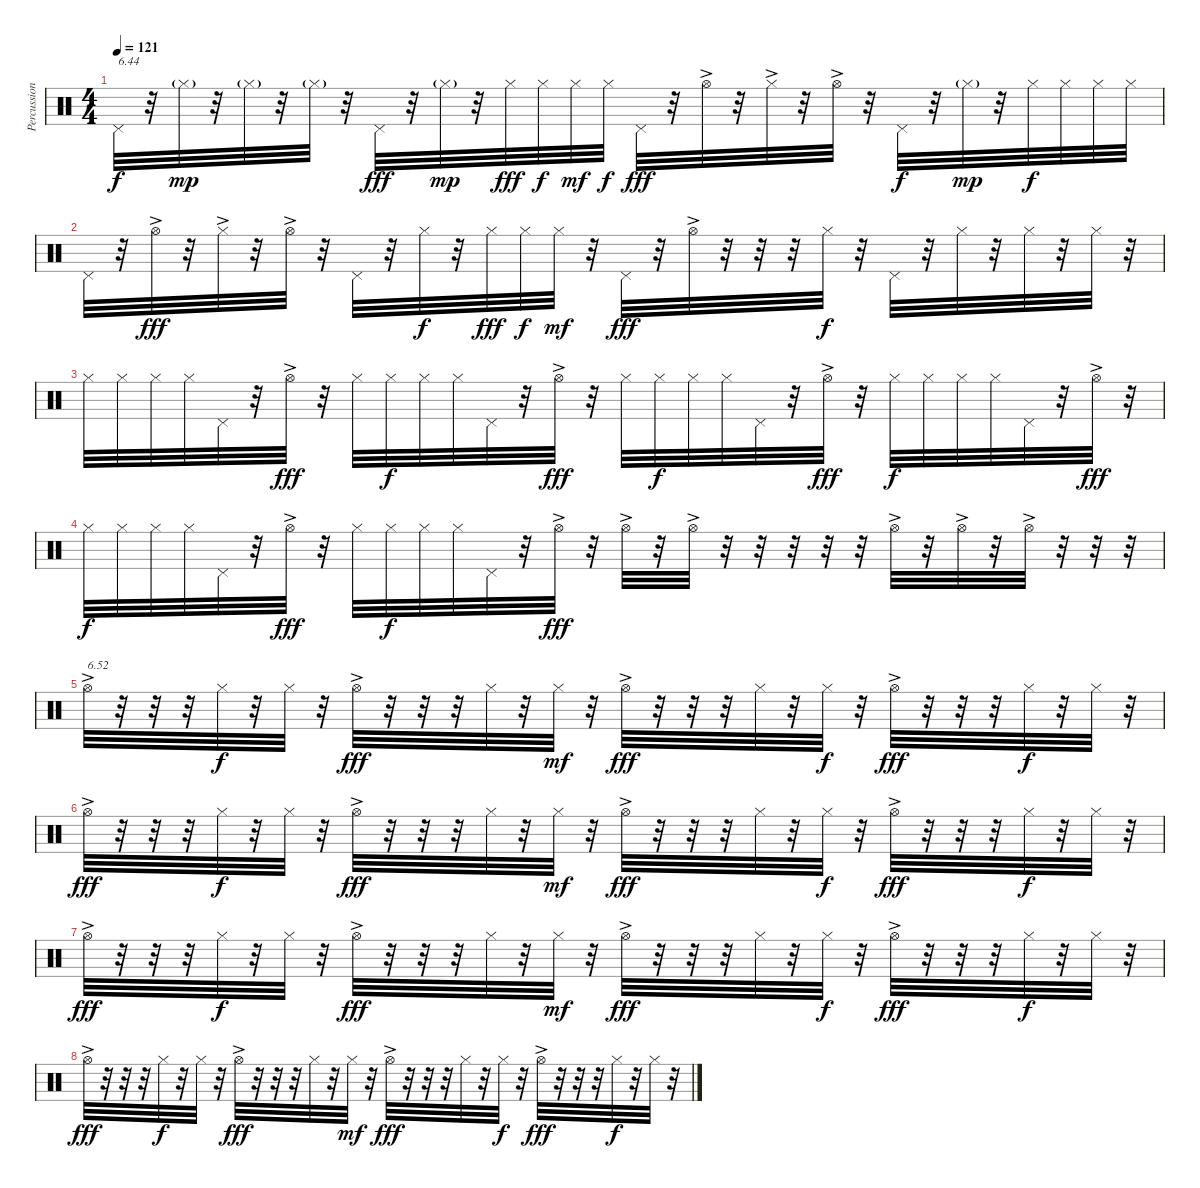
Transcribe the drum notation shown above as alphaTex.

\track ("Percussions" "Percussion") {instrument percussion}
\staff {score}
\articulation defaults
\ts (4 4)
\tempo 121
\clef neutral
\ks c "Pedal Hi-Hat (hit)".32{txt "6.44" dy f}
r.32 "Hi-Hat (closed)"{g}.32{dy mp} r.32 "Hi-Hat (closed)"{g}.32 r.32 "Hi-Hat (closed)"{g}.32 r.32 "Pedal Hi-Hat (hit)".32{dy fff} r.32 "Hi-Hat (closed)"{g}.32{dy mp} r.32 "Hi-Hat (closed)".32{dy fff} "Hi-Hat (closed)".32{dy f} "Hi-Hat (closed)".32{dy mf} "Hi-Hat (closed)".32{dy f} "Pedal Hi-Hat (hit)".32{dy fff} r.32 "Hi-Hat (open)"{ac}.32 r.32 "Hi-Hat (closed)"{ac}.32 r.32 "Hi-Hat (open)"{ac}.32 r.32 "Pedal Hi-Hat (hit)".32{dy f} r.32 "Hi-Hat (closed)"{g}.32{dy mp} r.32 "Hi-Hat (closed)".32{dy f} "Hi-Hat (closed)".32 "Hi-Hat (closed)".32 "Hi-Hat (closed)".32 |
"Pedal Hi-Hat (hit)".32 r.32 "Hi-Hat (open)"{ac}.32{dy fff} r.32 "Hi-Hat (closed)"{ac}.32 r.32 "Hi-Hat (open)"{ac}.32 r.32 "Pedal Hi-Hat (hit)".32 r.32 "Hi-Hat (closed)".32{dy f} r.32 "Hi-Hat (closed)".32{dy fff} "Hi-Hat (closed)".32{dy f} "Hi-Hat (closed)".32{dy mf} r.32 "Pedal Hi-Hat (hit)".32{dy fff} r.32 "Hi-Hat (open)"{ac}.32 r.32 r.32 r.32 "Hi-Hat (closed)".32{dy f} r.32 "Pedal Hi-Hat (hit)".32 r.32 "Hi-Hat (closed)".32 r.32 "Hi-Hat (closed)".32 r.32 "Hi-Hat (closed)".32 r.32 |
"Hi-Hat (closed)".32 "Hi-Hat (closed)".32 "Hi-Hat (closed)".32 "Hi-Hat (closed)".32 "Pedal Hi-Hat (hit)".32 r.32 "Hi-Hat (open)"{ac}.32{dy fff} r.32 "Hi-Hat (closed)".32 "Hi-Hat (closed)".32{dy f} "Hi-Hat (closed)".32 "Hi-Hat (closed)".32 "Pedal Hi-Hat (hit)".32 r.32 "Hi-Hat (open)"{ac}.32{dy fff} r.32 "Hi-Hat (closed)".32 "Hi-Hat (closed)".32{dy f} "Hi-Hat (closed)".32 "Hi-Hat (closed)".32 "Pedal Hi-Hat (hit)".32 r.32 "Hi-Hat (open)"{ac}.32{dy fff} r.32 "Hi-Hat (closed)".32{dy f} "Hi-Hat (closed)".32 "Hi-Hat (closed)".32 "Hi-Hat (closed)".32 "Pedal Hi-Hat (hit)".32 r.32 "Hi-Hat (open)"{ac}.32{dy fff} r.32 |
"Hi-Hat (closed)".32{dy f} "Hi-Hat (closed)".32 "Hi-Hat (closed)".32 "Hi-Hat (closed)".32 "Pedal Hi-Hat (hit)".32 r.32 "Hi-Hat (open)"{ac}.32{dy fff} r.32 "Hi-Hat (closed)".32 "Hi-Hat (closed)".32{dy f} "Hi-Hat (closed)".32 "Hi-Hat (closed)".32 "Pedal Hi-Hat (hit)".32 r.32 "Hi-Hat (open)"{ac}.32{dy fff} r.32 "Hi-Hat (open)"{ac}.32 r.32 "Hi-Hat (open)"{ac}.32 r.32 r.32 r.32 r.32 r.32 "Hi-Hat (open)"{ac}.32 r.32 "Hi-Hat (open)"{ac}.32 r.32 "Hi-Hat (open)"{ac}.32 r.32 r.32 r.32 |
"Hi-Hat (open)"{ac}.32{txt "6.52"} r.32 r.32 r.32 "Hi-Hat (closed)".32{dy f} r.32 "Hi-Hat (closed)".32 r.32 "Hi-Hat (open)"{ac}.32{dy fff} r.32 r.32 r.32 "Hi-Hat (closed)".32 r.32 "Hi-Hat (closed)".32{dy mf} r.32 "Hi-Hat (open)"{ac}.32{dy fff} r.32 r.32 r.32 "Hi-Hat (closed)".32 r.32 "Hi-Hat (closed)".32{dy f} r.32 "Hi-Hat (open)"{ac}.32{dy fff} r.32 r.32 r.32 "Hi-Hat (closed)".32{dy f} r.32 "Hi-Hat (closed)".32 r.32 |
"Hi-Hat (open)"{ac}.32{dy fff} r.32 r.32 r.32 "Hi-Hat (closed)".32{dy f} r.32 "Hi-Hat (closed)".32 r.32 "Hi-Hat (open)"{ac}.32{dy fff} r.32 r.32 r.32 "Hi-Hat (closed)".32 r.32 "Hi-Hat (closed)".32{dy mf} r.32 "Hi-Hat (open)"{ac}.32{dy fff} r.32 r.32 r.32 "Hi-Hat (closed)".32 r.32 "Hi-Hat (closed)".32{dy f} r.32 "Hi-Hat (open)"{ac}.32{dy fff} r.32 r.32 r.32 "Hi-Hat (closed)".32{dy f} r.32 "Hi-Hat (closed)".32 r.32 |
"Hi-Hat (open)"{ac}.32{dy fff} r.32 r.32 r.32 "Hi-Hat (closed)".32{dy f} r.32 "Hi-Hat (closed)".32 r.32 "Hi-Hat (open)"{ac}.32{dy fff} r.32 r.32 r.32 "Hi-Hat (closed)".32 r.32 "Hi-Hat (closed)".32{dy mf} r.32 "Hi-Hat (open)"{ac}.32{dy fff} r.32 r.32 r.32 "Hi-Hat (closed)".32 r.32 "Hi-Hat (closed)".32{dy f} r.32 "Hi-Hat (open)"{ac}.32{dy fff} r.32 r.32 r.32 "Hi-Hat (closed)".32{dy f} r.32 "Hi-Hat (closed)".32 r.32 |
"Hi-Hat (open)"{ac}.32{dy fff} r.32 r.32 r.32 "Hi-Hat (closed)".32{dy f} r.32 "Hi-Hat (closed)".32 r.32 "Hi-Hat (open)"{ac}.32{dy fff} r.32 r.32 r.32 "Hi-Hat (closed)".32 r.32 "Hi-Hat (closed)".32{dy mf} r.32 "Hi-Hat (open)"{ac}.32{dy fff} r.32 r.32 r.32 "Hi-Hat (closed)".32 r.32 "Hi-Hat (closed)".32{dy f} r.32 "Hi-Hat (open)"{ac}.32{dy fff} r.32 r.32 r.32 "Hi-Hat (closed)".32{dy f} r.32 "Hi-Hat (closed)".32 r.32
